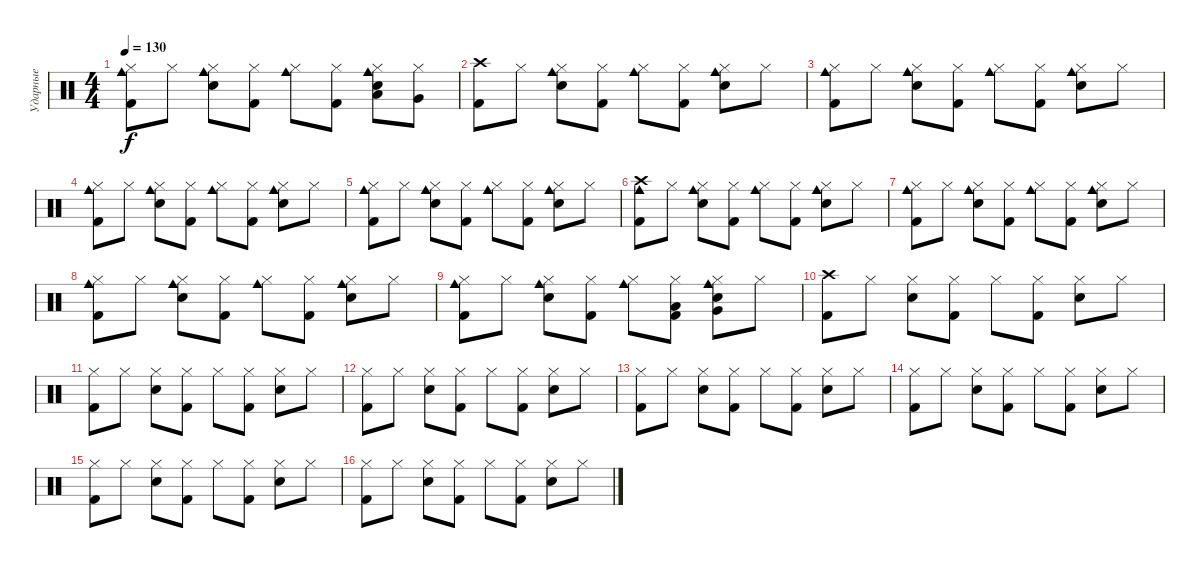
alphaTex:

\track ("Ударные" "Ударные") {instrument percussion}
\staff {score}
\articulation defaults
\ts (4 4)
\tempo 130
\clef neutral
\ks c
("Hi-Hat (closed)" "Cowbell medium (hit)" "Kick (hit) 2").8{dy f} "Hi-Hat (closed)".8 ("Hi-Hat (closed)" "Cowbell medium (hit)" "Snare (hit) 2").8 ("Hi-Hat (closed)" "Kick (hit) 2").8 ("Hi-Hat (closed)" "Cowbell medium (hit)").8 ("Hi-Hat (closed)" "Kick (hit) 2").8 ("Hi-Hat (closed)" "Cowbell medium (hit)" "Low Tom (hit)" "Snare (hit) 2").8 ("Hi-Hat (closed)" "Very Low Tom (hit)").8 |
("Crash high (hit)" "Kick (hit) 2").8 "Hi-Hat (closed)".8 ("Hi-Hat (closed)" "Cowbell medium (hit)" "Snare (hit) 2").8 ("Hi-Hat (closed)" "Kick (hit) 2").8 ("Hi-Hat (closed)" "Cowbell medium (hit)").8 ("Hi-Hat (closed)" "Kick (hit) 2").8 ("Hi-Hat (closed)" "Cowbell medium (hit)" "Snare (hit) 2").8 "Hi-Hat (closed)".8 |
("Hi-Hat (closed)" "Cowbell medium (hit)" "Kick (hit) 2").8 "Hi-Hat (closed)".8 ("Hi-Hat (closed)" "Cowbell medium (hit)" "Snare (hit) 2").8 ("Hi-Hat (closed)" "Kick (hit) 2").8 ("Hi-Hat (closed)" "Cowbell medium (hit)").8 ("Hi-Hat (closed)" "Kick (hit) 2").8 ("Hi-Hat (closed)" "Cowbell medium (hit)" "Snare (hit) 2").8 "Hi-Hat (closed)".8 |
("Hi-Hat (closed)" "Cowbell medium (hit)" "Kick (hit) 2").8 "Hi-Hat (closed)".8 ("Hi-Hat (closed)" "Cowbell medium (hit)" "Snare (hit) 2").8 ("Hi-Hat (closed)" "Kick (hit) 2").8 ("Hi-Hat (closed)" "Cowbell medium (hit)").8 ("Hi-Hat (closed)" "Kick (hit) 2").8 ("Hi-Hat (closed)" "Cowbell medium (hit)" "Snare (hit) 2").8 "Hi-Hat (closed)".8 |
("Hi-Hat (closed)" "Cowbell medium (hit)" "Kick (hit) 2").8 "Hi-Hat (closed)".8 ("Hi-Hat (closed)" "Cowbell medium (hit)" "Snare (hit) 2").8 ("Hi-Hat (closed)" "Kick (hit) 2").8 ("Hi-Hat (closed)" "Cowbell medium (hit)").8 ("Hi-Hat (closed)" "Kick (hit) 2").8 ("Hi-Hat (closed)" "Cowbell medium (hit)" "Snare (hit) 2").8 "Hi-Hat (closed)".8 |
("Crash high (hit)" "Cowbell medium (hit)" "Kick (hit) 2").8 "Hi-Hat (closed)".8 ("Hi-Hat (closed)" "Cowbell medium (hit)" "Snare (hit) 2").8 ("Hi-Hat (closed)" "Kick (hit) 2").8 ("Hi-Hat (closed)" "Cowbell medium (hit)").8 ("Hi-Hat (closed)" "Kick (hit) 2").8 ("Hi-Hat (closed)" "Cowbell medium (hit)" "Snare (hit) 2").8 "Hi-Hat (closed)".8 |
("Hi-Hat (closed)" "Cowbell medium (hit)" "Kick (hit) 2").8 "Hi-Hat (closed)".8 ("Hi-Hat (closed)" "Cowbell medium (hit)" "Snare (hit) 2").8 ("Hi-Hat (closed)" "Kick (hit) 2").8 ("Hi-Hat (closed)" "Cowbell medium (hit)").8 ("Hi-Hat (closed)" "Kick (hit) 2").8 ("Hi-Hat (closed)" "Cowbell medium (hit)" "Snare (hit) 2").8 "Hi-Hat (closed)".8 |
("Hi-Hat (closed)" "Cowbell medium (hit)" "Kick (hit) 2").8 "Hi-Hat (closed)".8 ("Hi-Hat (closed)" "Cowbell medium (hit)" "Snare (hit) 2").8 ("Hi-Hat (closed)" "Kick (hit) 2").8 ("Hi-Hat (closed)" "Cowbell medium (hit)").8 ("Hi-Hat (closed)" "Kick (hit) 2").8 ("Hi-Hat (closed)" "Cowbell medium (hit)" "Snare (hit) 2").8 "Hi-Hat (closed)".8 |
("Hi-Hat (closed)" "Cowbell medium (hit)" "Kick (hit) 2").8 "Hi-Hat (closed)".8 ("Hi-Hat (closed)" "Cowbell medium (hit)" "Snare (hit) 2").8 ("Hi-Hat (closed)" "Kick (hit) 2").8 ("Hi-Hat (closed)" "Cowbell medium (hit)").8 ("Hi-Hat (closed)" "Low Tom (hit)" "Kick (hit) 2").8 ("Hi-Hat (closed)" "Cowbell medium (hit)" "Very Low Tom (hit)" "Snare (hit) 2").8 "Hi-Hat (closed)".8 |
("Crash high (hit)" "Kick (hit) 2").8 "Hi-Hat (closed)".8 ("Hi-Hat (closed)" "Snare (hit) 2").8 ("Hi-Hat (closed)" "Kick (hit) 2").8 "Hi-Hat (closed)".8 ("Hi-Hat (closed)" "Kick (hit) 2").8 ("Hi-Hat (closed)" "Snare (hit) 2").8 "Hi-Hat (closed)".8 |
("Hi-Hat (closed)" "Kick (hit) 2").8 "Hi-Hat (closed)".8 ("Hi-Hat (closed)" "Snare (hit) 2").8 ("Hi-Hat (closed)" "Kick (hit) 2").8 "Hi-Hat (closed)".8 ("Hi-Hat (closed)" "Kick (hit) 2").8 ("Hi-Hat (closed)" "Snare (hit) 2").8 "Hi-Hat (closed)".8 |
("Hi-Hat (closed)" "Kick (hit) 2").8 "Hi-Hat (closed)".8 ("Hi-Hat (closed)" "Snare (hit) 2").8 ("Hi-Hat (closed)" "Kick (hit) 2").8 "Hi-Hat (closed)".8 ("Hi-Hat (closed)" "Kick (hit) 2").8 ("Hi-Hat (closed)" "Snare (hit) 2").8 "Hi-Hat (closed)".8 |
("Hi-Hat (closed)" "Kick (hit) 2").8 "Hi-Hat (closed)".8 ("Hi-Hat (closed)" "Snare (hit) 2").8 ("Hi-Hat (closed)" "Kick (hit) 2").8 "Hi-Hat (closed)".8 ("Hi-Hat (closed)" "Kick (hit) 2").8 ("Hi-Hat (closed)" "Snare (hit) 2").8 "Hi-Hat (closed)".8 |
("Hi-Hat (closed)" "Kick (hit) 2").8 "Hi-Hat (closed)".8 ("Hi-Hat (closed)" "Snare (hit) 2").8 ("Hi-Hat (closed)" "Kick (hit) 2").8 "Hi-Hat (closed)".8 ("Hi-Hat (closed)" "Kick (hit) 2").8 ("Hi-Hat (closed)" "Snare (hit) 2").8 "Hi-Hat (closed)".8 |
("Hi-Hat (closed)" "Kick (hit) 2").8 "Hi-Hat (closed)".8 ("Hi-Hat (closed)" "Snare (hit) 2").8 ("Hi-Hat (closed)" "Kick (hit) 2").8 "Hi-Hat (closed)".8 ("Hi-Hat (closed)" "Kick (hit) 2").8 ("Hi-Hat (closed)" "Snare (hit) 2").8 "Hi-Hat (closed)".8 |
("Hi-Hat (closed)" "Kick (hit) 2").8 "Hi-Hat (closed)".8 ("Hi-Hat (closed)" "Snare (hit) 2").8 ("Hi-Hat (closed)" "Kick (hit) 2").8 "Hi-Hat (closed)".8 ("Hi-Hat (closed)" "Kick (hit) 2").8 ("Hi-Hat (closed)" "Snare (hit) 2").8 "Hi-Hat (closed)".8
